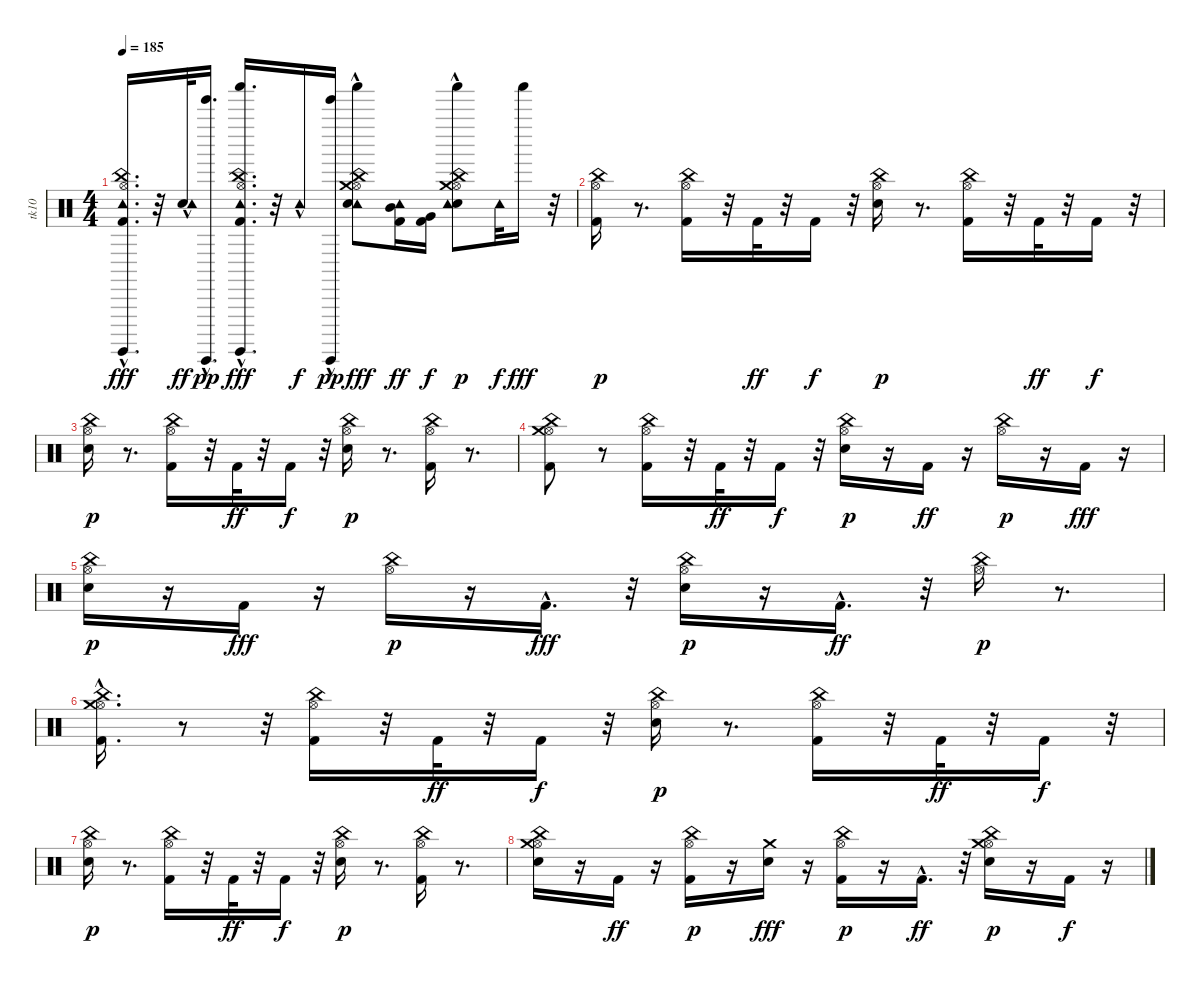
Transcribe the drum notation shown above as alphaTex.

\track ("tk10" "tk10") {instrument percussion}
\staff {score}
\articulation defaults
\ts (4 4)
\tempo 185
\clef neutral
\ks c
("Kick (hit) 2"{hac} "Hi-Hat (open)" "China (hit)" "Surdo (hit)" "Tambourine (hit)"{hac}).16{d dy fff} r.32 ("Electric Snare (hit)" "Tambourine (hit)"{hac}).32{dy ff} ("Guiro (hit)" "Tinkle Bell (hit)"{hac}).16{d dy pp} ("Tambourine (hit)"{hac} "Shaker (hit)" "Kick (hit) 2"{hac} "Hi-Hat (open)" "China (hit)" "Surdo (hit)").16{d dy fff} r.32 "Tambourine (hit)"{hac}.16{dy f} ("Guiro (hit)" "Tinkle Bell (hit)"{hac}).16{dy pp} ("Tambourine (hit)"{hac} "Electric Snare (hit)" "Hi-Hat (open)" "Crash medium (hit)" "China (hit)" "Shaker (hit)"{hac}).8{dy fff} ("Tambourine (hit)" "Mid Tom (hit)" "Kick (hit) 2").16{dy ff} ("Kick (hit) 2" "Very Low Tom (hit)").16{dy f} ("Electric Snare (hit)"{hac} "Tambourine (hit)" "Shaker (hit)" "Hi-Hat (open)" "Crash medium (hit)" "China (hit)").8{dy p} "Tambourine (hit)".32{dy f} "Shaker (hit)".16{dy fff} r.32 |
("Kick (hit) 2" "Hi-Hat (open)" "China (hit)").16{dy p} r.8{d} ("Kick (hit) 2" "Hi-Hat (open)" "China (hit)").16 r.32 "Kick (hit) 2".32{dy ff} r.32 "Kick (hit) 2".16{dy f} r.32 ("Electric Snare (hit)" "Hi-Hat (open)" "China (hit)").16{dy p} r.8{d} ("Kick (hit) 2" "Hi-Hat (open)" "China (hit)").16 r.32 "Kick (hit) 2".32{dy ff} r.32 "Kick (hit) 2".16{dy f} r.32 |
("Electric Snare (hit)" "Hi-Hat (open)" "China (hit)").16{dy p} r.8{d} ("Kick (hit) 2" "Hi-Hat (open)" "China (hit)").16 r.32 "Kick (hit) 2".32{dy ff} r.32 "Kick (hit) 2".16{dy f} r.32 ("Electric Snare (hit)" "Hi-Hat (open)" "China (hit)").16{dy p} r.8{d} ("Kick (hit) 2" "Hi-Hat (open)" "China (hit)").16 r.8{d} |
("Kick (hit) 2" "Hi-Hat (open)" "Crash medium (hit)" "China (hit)").8 r.8 ("Kick (hit) 2" "Hi-Hat (open)" "China (hit)").16 r.32 "Kick (hit) 2".32{dy ff} r.32 "Kick (hit) 2".16{dy f} r.32 ("Electric Snare (hit)" "Hi-Hat (open)" "China (hit)").16{dy p} r.16 "Kick (hit) 2".16{dy ff} r.16 ("Hi-Hat (open)" "China (hit)").16{dy p} r.16 "Kick (hit) 2".16{dy fff} r.16 |
("Electric Snare (hit)" "Hi-Hat (open)" "China (hit)").16{dy p} r.16 "Kick (hit) 2".16{dy fff} r.16 ("Hi-Hat (open)" "China (hit)").16{dy p} r.16 "Kick (hit) 2"{hac}.16{d dy fff} r.32 ("Electric Snare (hit)" "Hi-Hat (open)" "China (hit)").16{dy p} r.16 "Kick (hit) 2"{hac}.16{d dy ff} r.32 ("Hi-Hat (open)" "China (hit)").16{dy p} r.8{d} |
("Kick (hit) 2" "Hi-Hat (open)" "Crash medium (hit)"{hac} "China (hit)").16{d} r.8 r.32 ("Kick (hit) 2" "Hi-Hat (open)" "China (hit)").16 r.32 "Kick (hit) 2".32{dy ff} r.32 "Kick (hit) 2".16{dy f} r.32 ("Electric Snare (hit)" "Hi-Hat (open)" "China (hit)").16{dy p} r.8{d} ("Kick (hit) 2" "Hi-Hat (open)" "China (hit)").16 r.32 "Kick (hit) 2".32{dy ff} r.32 "Kick (hit) 2".16{dy f} r.32 |
("Electric Snare (hit)" "Hi-Hat (open)" "China (hit)").16{dy p} r.8{d} ("Kick (hit) 2" "Hi-Hat (open)" "China (hit)").16 r.32 "Kick (hit) 2".32{dy ff} r.32 "Kick (hit) 2".16{dy f} r.32 ("Electric Snare (hit)" "Hi-Hat (open)" "China (hit)").16{dy p} r.8{d} ("Kick (hit) 2" "Hi-Hat (open)" "China (hit)").16 r.8{d} |
("Electric Snare (hit)" "Hi-Hat (open)" "Crash medium (hit)" "China (hit)").16 r.16 "Kick (hit) 2".16{dy ff} r.16 ("Hi-Hat (open)" "Kick (hit) 2" "China (hit)").16{dy p} r.16 ("Electric Snare (hit)" "Crash medium (hit)").16{dy fff} r.16 ("Kick (hit) 2" "Hi-Hat (open)" "China (hit)").16{dy p} r.16 "Kick (hit) 2"{hac}.16{d dy ff} r.32 ("Electric Snare (hit)" "Hi-Hat (open)" "Crash medium (hit)" "China (hit)").16{dy p} r.16 "Kick (hit) 2".16{dy f} r.16
